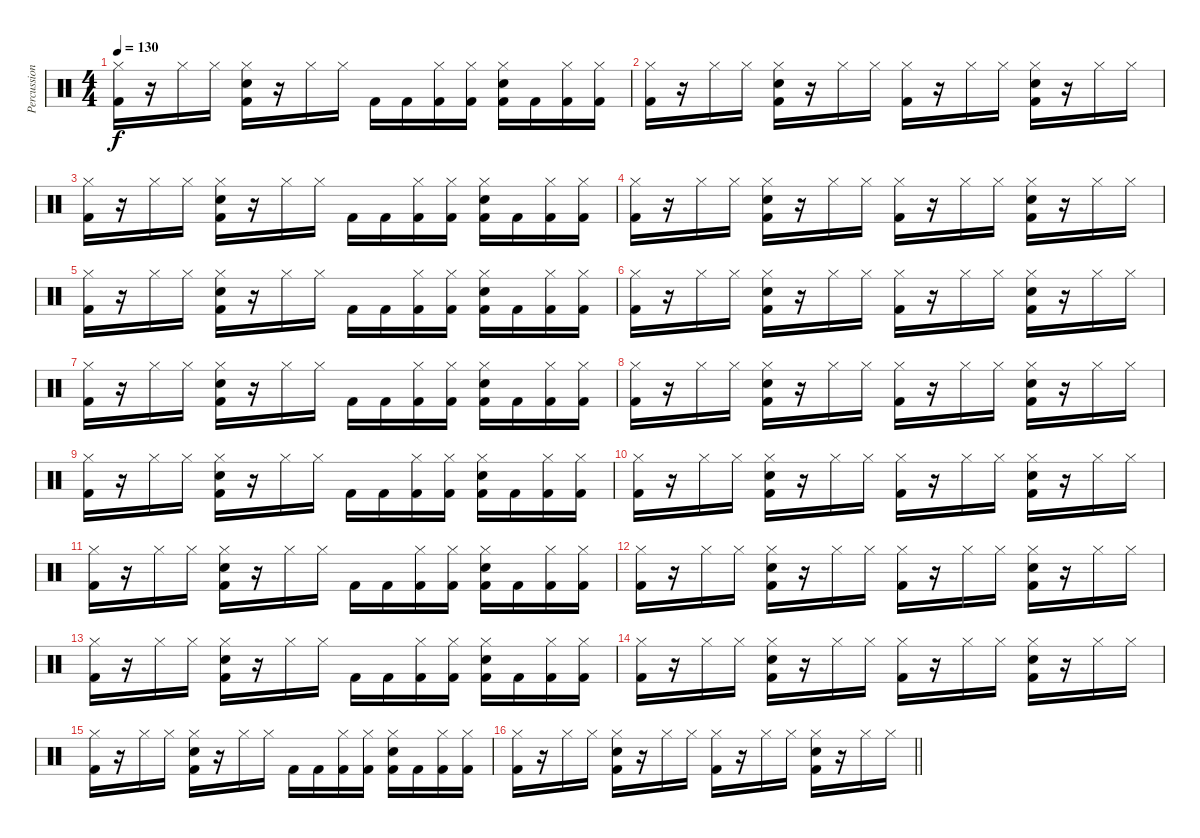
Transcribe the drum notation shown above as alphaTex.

\track ("Percussion" "Percussion") {instrument percussion}
\staff {score}
\articulation defaults
\ts (4 4)
\tempo 130
\clef neutral
\ks c
("Hi-Hat (closed)" "Kick (hit) 2").16{dy f} r.16 "Hi-Hat (closed)".16 "Hi-Hat (closed)".16 ("Hi-Hat (closed)" "Electric Snare (hit)" "Kick (hit) 2").16 r.16 "Hi-Hat (closed)".16 "Hi-Hat (closed)".16 "Kick (hit) 2".16 "Kick (hit) 2".16 ("Hi-Hat (closed)" "Kick (hit) 2").16 ("Hi-Hat (closed)" "Kick (hit) 2").16 ("Hi-Hat (closed)" "Electric Snare (hit)" "Kick (hit) 2").16 "Kick (hit) 2".16 ("Hi-Hat (closed)" "Kick (hit) 2").16 ("Hi-Hat (closed)" "Kick (hit) 2").16 |
("Hi-Hat (closed)" "Kick (hit) 2").16 r.16 "Hi-Hat (closed)".16 "Hi-Hat (closed)".16 ("Hi-Hat (closed)" "Electric Snare (hit)" "Kick (hit) 2").16 r.16 "Hi-Hat (closed)".16 "Hi-Hat (closed)".16 ("Hi-Hat (closed)" "Kick (hit) 2").16 r.16 "Hi-Hat (closed)".16 "Hi-Hat (closed)".16 ("Hi-Hat (closed)" "Electric Snare (hit)" "Kick (hit) 2").16 r.16 "Hi-Hat (closed)".16 "Hi-Hat (closed)".16 |
("Hi-Hat (closed)" "Kick (hit) 2").16 r.16 "Hi-Hat (closed)".16 "Hi-Hat (closed)".16 ("Hi-Hat (closed)" "Electric Snare (hit)" "Kick (hit) 2").16 r.16 "Hi-Hat (closed)".16 "Hi-Hat (closed)".16 "Kick (hit) 2".16 "Kick (hit) 2".16 ("Hi-Hat (closed)" "Kick (hit) 2").16 ("Hi-Hat (closed)" "Kick (hit) 2").16 ("Hi-Hat (closed)" "Electric Snare (hit)" "Kick (hit) 2").16 "Kick (hit) 2".16 ("Hi-Hat (closed)" "Kick (hit) 2").16 ("Hi-Hat (closed)" "Kick (hit) 2").16 |
("Hi-Hat (closed)" "Kick (hit) 2").16 r.16 "Hi-Hat (closed)".16 "Hi-Hat (closed)".16 ("Hi-Hat (closed)" "Electric Snare (hit)" "Kick (hit) 2").16 r.16 "Hi-Hat (closed)".16 "Hi-Hat (closed)".16 ("Hi-Hat (closed)" "Kick (hit) 2").16 r.16 "Hi-Hat (closed)".16 "Hi-Hat (closed)".16 ("Hi-Hat (closed)" "Electric Snare (hit)" "Kick (hit) 2").16 r.16 "Hi-Hat (closed)".16 "Hi-Hat (closed)".16 |
("Hi-Hat (closed)" "Kick (hit) 2").16 r.16 "Hi-Hat (closed)".16 "Hi-Hat (closed)".16 ("Hi-Hat (closed)" "Electric Snare (hit)" "Kick (hit) 2").16 r.16 "Hi-Hat (closed)".16 "Hi-Hat (closed)".16 "Kick (hit) 2".16 "Kick (hit) 2".16 ("Hi-Hat (closed)" "Kick (hit) 2").16 ("Hi-Hat (closed)" "Kick (hit) 2").16 ("Hi-Hat (closed)" "Electric Snare (hit)" "Kick (hit) 2").16 "Kick (hit) 2".16 ("Hi-Hat (closed)" "Kick (hit) 2").16 ("Hi-Hat (closed)" "Kick (hit) 2").16 |
("Hi-Hat (closed)" "Kick (hit) 2").16 r.16 "Hi-Hat (closed)".16 "Hi-Hat (closed)".16 ("Hi-Hat (closed)" "Electric Snare (hit)" "Kick (hit) 2").16 r.16 "Hi-Hat (closed)".16 "Hi-Hat (closed)".16 ("Hi-Hat (closed)" "Kick (hit) 2").16 r.16 "Hi-Hat (closed)".16 "Hi-Hat (closed)".16 ("Hi-Hat (closed)" "Electric Snare (hit)" "Kick (hit) 2").16 r.16 "Hi-Hat (closed)".16 "Hi-Hat (closed)".16 |
("Hi-Hat (closed)" "Kick (hit) 2").16 r.16 "Hi-Hat (closed)".16 "Hi-Hat (closed)".16 ("Hi-Hat (closed)" "Electric Snare (hit)" "Kick (hit) 2").16 r.16 "Hi-Hat (closed)".16 "Hi-Hat (closed)".16 "Kick (hit) 2".16 "Kick (hit) 2".16 ("Hi-Hat (closed)" "Kick (hit) 2").16 ("Hi-Hat (closed)" "Kick (hit) 2").16 ("Hi-Hat (closed)" "Electric Snare (hit)" "Kick (hit) 2").16 "Kick (hit) 2".16 ("Hi-Hat (closed)" "Kick (hit) 2").16 ("Hi-Hat (closed)" "Kick (hit) 2").16 |
("Hi-Hat (closed)" "Kick (hit) 2").16 r.16 "Hi-Hat (closed)".16 "Hi-Hat (closed)".16 ("Hi-Hat (closed)" "Electric Snare (hit)" "Kick (hit) 2").16 r.16 "Hi-Hat (closed)".16 "Hi-Hat (closed)".16 ("Hi-Hat (closed)" "Kick (hit) 2").16 r.16 "Hi-Hat (closed)".16 "Hi-Hat (closed)".16 ("Hi-Hat (closed)" "Electric Snare (hit)" "Kick (hit) 2").16 r.16 "Hi-Hat (closed)".16 "Hi-Hat (closed)".16 |
("Hi-Hat (closed)" "Kick (hit) 2").16 r.16 "Hi-Hat (closed)".16 "Hi-Hat (closed)".16 ("Hi-Hat (closed)" "Electric Snare (hit)" "Kick (hit) 2").16 r.16 "Hi-Hat (closed)".16 "Hi-Hat (closed)".16 "Kick (hit) 2".16 "Kick (hit) 2".16 ("Hi-Hat (closed)" "Kick (hit) 2").16 ("Hi-Hat (closed)" "Kick (hit) 2").16 ("Hi-Hat (closed)" "Electric Snare (hit)" "Kick (hit) 2").16 "Kick (hit) 2".16 ("Hi-Hat (closed)" "Kick (hit) 2").16 ("Hi-Hat (closed)" "Kick (hit) 2").16 |
("Hi-Hat (closed)" "Kick (hit) 2").16 r.16 "Hi-Hat (closed)".16 "Hi-Hat (closed)".16 ("Hi-Hat (closed)" "Electric Snare (hit)" "Kick (hit) 2").16 r.16 "Hi-Hat (closed)".16 "Hi-Hat (closed)".16 ("Hi-Hat (closed)" "Kick (hit) 2").16 r.16 "Hi-Hat (closed)".16 "Hi-Hat (closed)".16 ("Hi-Hat (closed)" "Electric Snare (hit)" "Kick (hit) 2").16 r.16 "Hi-Hat (closed)".16 "Hi-Hat (closed)".16 |
("Hi-Hat (closed)" "Kick (hit) 2").16 r.16 "Hi-Hat (closed)".16 "Hi-Hat (closed)".16 ("Hi-Hat (closed)" "Electric Snare (hit)" "Kick (hit) 2").16 r.16 "Hi-Hat (closed)".16 "Hi-Hat (closed)".16 "Kick (hit) 2".16 "Kick (hit) 2".16 ("Hi-Hat (closed)" "Kick (hit) 2").16 ("Hi-Hat (closed)" "Kick (hit) 2").16 ("Hi-Hat (closed)" "Electric Snare (hit)" "Kick (hit) 2").16 "Kick (hit) 2".16 ("Hi-Hat (closed)" "Kick (hit) 2").16 ("Hi-Hat (closed)" "Kick (hit) 2").16 |
("Hi-Hat (closed)" "Kick (hit) 2").16 r.16 "Hi-Hat (closed)".16 "Hi-Hat (closed)".16 ("Hi-Hat (closed)" "Electric Snare (hit)" "Kick (hit) 2").16 r.16 "Hi-Hat (closed)".16 "Hi-Hat (closed)".16 ("Hi-Hat (closed)" "Kick (hit) 2").16 r.16 "Hi-Hat (closed)".16 "Hi-Hat (closed)".16 ("Hi-Hat (closed)" "Electric Snare (hit)" "Kick (hit) 2").16 r.16 "Hi-Hat (closed)".16 "Hi-Hat (closed)".16 |
("Hi-Hat (closed)" "Kick (hit) 2").16 r.16 "Hi-Hat (closed)".16 "Hi-Hat (closed)".16 ("Hi-Hat (closed)" "Electric Snare (hit)" "Kick (hit) 2").16 r.16 "Hi-Hat (closed)".16 "Hi-Hat (closed)".16 "Kick (hit) 2".16 "Kick (hit) 2".16 ("Hi-Hat (closed)" "Kick (hit) 2").16 ("Hi-Hat (closed)" "Kick (hit) 2").16 ("Hi-Hat (closed)" "Electric Snare (hit)" "Kick (hit) 2").16 "Kick (hit) 2".16 ("Hi-Hat (closed)" "Kick (hit) 2").16 ("Hi-Hat (closed)" "Kick (hit) 2").16 |
("Hi-Hat (closed)" "Kick (hit) 2").16 r.16 "Hi-Hat (closed)".16 "Hi-Hat (closed)".16 ("Hi-Hat (closed)" "Electric Snare (hit)" "Kick (hit) 2").16 r.16 "Hi-Hat (closed)".16 "Hi-Hat (closed)".16 ("Hi-Hat (closed)" "Kick (hit) 2").16 r.16 "Hi-Hat (closed)".16 "Hi-Hat (closed)".16 ("Hi-Hat (closed)" "Electric Snare (hit)" "Kick (hit) 2").16 r.16 "Hi-Hat (closed)".16 "Hi-Hat (closed)".16 |
("Hi-Hat (closed)" "Kick (hit) 2").16 r.16 "Hi-Hat (closed)".16 "Hi-Hat (closed)".16 ("Hi-Hat (closed)" "Electric Snare (hit)" "Kick (hit) 2").16 r.16 "Hi-Hat (closed)".16 "Hi-Hat (closed)".16 "Kick (hit) 2".16 "Kick (hit) 2".16 ("Hi-Hat (closed)" "Kick (hit) 2").16 ("Hi-Hat (closed)" "Kick (hit) 2").16 ("Hi-Hat (closed)" "Electric Snare (hit)" "Kick (hit) 2").16 "Kick (hit) 2".16 ("Hi-Hat (closed)" "Kick (hit) 2").16 ("Hi-Hat (closed)" "Kick (hit) 2").16 |
\barLineRight lightlight
("Hi-Hat (closed)" "Kick (hit) 2").16 r.16 "Hi-Hat (closed)".16 "Hi-Hat (closed)".16 ("Hi-Hat (closed)" "Electric Snare (hit)" "Kick (hit) 2").16 r.16 "Hi-Hat (closed)".16 "Hi-Hat (closed)".16 ("Hi-Hat (closed)" "Kick (hit) 2").16 r.16 "Hi-Hat (closed)".16 "Hi-Hat (closed)".16 ("Hi-Hat (closed)" "Electric Snare (hit)" "Kick (hit) 2").16 r.16 "Hi-Hat (closed)".16 "Hi-Hat (closed)".16
